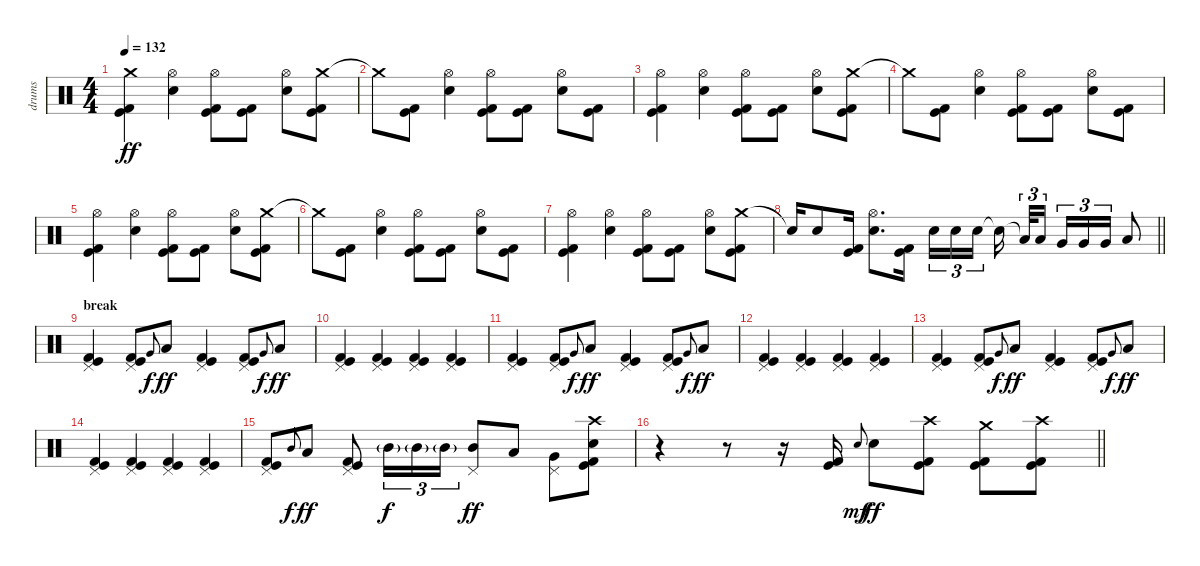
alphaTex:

\track ("drums" "drums") {instrument percussion}
\staff {score}
\articulation defaults
\ts (4 4)
\tempo 132
\clef neutral
\ks c
("Crash medium (hit)" "Kick (hit)" "Kick (hit) 2").4{dy ff} ("Electric Snare (hit)" "Hi-Hat (open)").4 ("Hi-Hat (open)" "Kick (hit)" "Kick (hit) 2").8 ("Kick (hit)" "Kick (hit) 2").8 ("Electric Snare (hit)" "Hi-Hat (open)").8 ("Crash medium (hit)" "Kick (hit)" "Kick (hit) 2").8 |
"Crash medium (hit)"{t}.8 ("Kick (hit)" "Kick (hit) 2").8 ("Electric Snare (hit)" "Hi-Hat (open)").4 ("Hi-Hat (open)" "Kick (hit)" "Kick (hit) 2").8 ("Kick (hit)" "Kick (hit) 2").8 ("Electric Snare (hit)" "Hi-Hat (open)").8 ("Kick (hit)" "Kick (hit) 2").8 |
("Hi-Hat (open)" "Kick (hit)" "Kick (hit) 2").4 ("Electric Snare (hit)" "Hi-Hat (open)").4 ("Hi-Hat (open)" "Kick (hit)" "Kick (hit) 2").8 ("Kick (hit)" "Kick (hit) 2").8 ("Electric Snare (hit)" "Hi-Hat (open)").8 ("Crash medium (hit)" "Kick (hit)" "Kick (hit) 2").8 |
"Crash medium (hit)"{t}.8 ("Kick (hit)" "Kick (hit) 2").8 ("Electric Snare (hit)" "Hi-Hat (open)").4 ("Hi-Hat (open)" "Kick (hit)" "Kick (hit) 2").8 ("Kick (hit)" "Kick (hit) 2").8 ("Electric Snare (hit)" "Hi-Hat (open)").8 ("Kick (hit)" "Kick (hit) 2").8 |
("Hi-Hat (open)" "Kick (hit)" "Kick (hit) 2").4 ("Electric Snare (hit)" "Hi-Hat (open)").4 ("Hi-Hat (open)" "Kick (hit)" "Kick (hit) 2").8 ("Kick (hit)" "Kick (hit) 2").8 ("Electric Snare (hit)" "Hi-Hat (open)").8 ("Crash medium (hit)" "Kick (hit)" "Kick (hit) 2").8 |
"Crash medium (hit)"{t}.8 ("Kick (hit)" "Kick (hit) 2").8 ("Electric Snare (hit)" "Hi-Hat (open)").4 ("Hi-Hat (open)" "Kick (hit)" "Kick (hit) 2").8 ("Kick (hit)" "Kick (hit) 2").8 ("Electric Snare (hit)" "Hi-Hat (open)").8 ("Kick (hit)" "Kick (hit) 2").8 |
("Hi-Hat (open)" "Kick (hit)" "Kick (hit) 2").4 ("Electric Snare (hit)" "Hi-Hat (open)").4 ("Hi-Hat (open)" "Kick (hit)" "Kick (hit) 2").8 ("Kick (hit)" "Kick (hit) 2").8 ("Electric Snare (hit)" "Hi-Hat (open)").8 ("Crash medium (hit)" "Kick (hit)" "Kick (hit) 2").8 |
\barLineRight lightlight "Snare (hit)"{t}.16 "Electric Snare (hit)".8
("Kick (hit)" "Kick (hit) 2").16 ("Electric Snare (hit)" "Hi-Hat (open)").8{d} ("Kick (hit)" "Kick (hit) 2").16 "Electric Snare (hit)".16{tu (3 2)} "Electric Snare (hit)".16{tu (3 2)} "Electric Snare (hit)".16{tu (3 2) beam splitsecondary} "Snare (hit)"{t}.16{beam splitsecondary} "Low Tom (hit)"{t}.32{tu (3 2)} "Low Tom (hit)".16{tu (3 2)} "Very Low Tom (hit)".16{tu (3 2)} "Very Low Tom (hit)".16{tu (3 2)} "Very Low Tom (hit)".16{tu (3 2)} "Low Floor Tom (hit)".8 |
\section ("" "break")
("Pedal Hi-Hat (hit)" "Kick (hit)" "Kick (hit) 2").4 ("Pedal Hi-Hat (hit)" "Kick (hit)" "Kick (hit) 2").8 "Very Low Tom (hit)".8{gr onbeat dy f} "Low Floor Tom (hit)".8{dy ff} ("Pedal Hi-Hat (hit)" "Kick (hit)" "Kick (hit) 2").4 ("Pedal Hi-Hat (hit)" "Kick (hit)" "Kick (hit) 2").8 "Very Low Tom (hit)".8{gr onbeat dy f} "Low Floor Tom (hit)".8{dy ff} |
("Pedal Hi-Hat (hit)" "Kick (hit)" "Kick (hit) 2").4 ("Pedal Hi-Hat (hit)" "Kick (hit)" "Kick (hit) 2").4 ("Pedal Hi-Hat (hit)" "Kick (hit)" "Kick (hit) 2").4 ("Pedal Hi-Hat (hit)" "Kick (hit)" "Kick (hit) 2").4 |
("Pedal Hi-Hat (hit)" "Kick (hit)" "Kick (hit) 2").4 ("Pedal Hi-Hat (hit)" "Kick (hit)" "Kick (hit) 2").8 "Very Low Tom (hit)".8{gr onbeat dy f} "Low Floor Tom (hit)".8{dy ff} ("Pedal Hi-Hat (hit)" "Kick (hit)" "Kick (hit) 2").4 ("Pedal Hi-Hat (hit)" "Kick (hit)" "Kick (hit) 2").8 "Very Low Tom (hit)".8{gr onbeat dy f} "Low Floor Tom (hit)".8{dy ff} |
("Pedal Hi-Hat (hit)" "Kick (hit)" "Kick (hit) 2").4 ("Pedal Hi-Hat (hit)" "Kick (hit)" "Kick (hit) 2").4 ("Pedal Hi-Hat (hit)" "Kick (hit)" "Kick (hit) 2").4 ("Pedal Hi-Hat (hit)" "Kick (hit)" "Kick (hit) 2").4 |
("Pedal Hi-Hat (hit)" "Kick (hit)" "Kick (hit) 2").4 ("Pedal Hi-Hat (hit)" "Kick (hit)" "Kick (hit) 2").8 "Very Low Tom (hit)".8{gr onbeat dy f} "Low Floor Tom (hit)".8{dy ff} ("Pedal Hi-Hat (hit)" "Kick (hit)" "Kick (hit) 2").4 ("Pedal Hi-Hat (hit)" "Kick (hit)" "Kick (hit) 2").8 "Very Low Tom (hit)".8{gr onbeat dy f} "Low Floor Tom (hit)".8{dy ff} |
("Pedal Hi-Hat (hit)" "Kick (hit)" "Kick (hit) 2").4 ("Pedal Hi-Hat (hit)" "Kick (hit)" "Kick (hit) 2").4 ("Pedal Hi-Hat (hit)" "Kick (hit)" "Kick (hit) 2").4 ("Pedal Hi-Hat (hit)" "Kick (hit)" "Kick (hit) 2").4 |
("Pedal Hi-Hat (hit)" "Kick (hit)" "Kick (hit) 2").8 "Mid Tom (hit)".8{gr onbeat dy f} "Low Tom (hit)".8{dy ff} ("Pedal Hi-Hat (hit)" "Kick (hit)" "Kick (hit) 2").8 "Mid Tom (hit)"{g}.16{tu (3 2) dy f} "Mid Tom (hit)"{g}.16{tu (3 2)} "Mid Tom (hit)"{g}.16{tu (3 2)} ("Mid Tom (hit)" "Pedal Hi-Hat (hit)").8{dy ff} "Low Tom (hit)".8 ("Very Low Tom (hit)" "Pedal Hi-Hat (hit)").8 ("Crash high (hit)" "Electric Snare (hit)" "Kick (hit)" "Kick (hit) 2").8 |
\barLineRight lightlight
r.4 r.8 r.16 ("Kick (hit)" "Kick (hit) 2").16 "Electric Snare (hit)".8{gr onbeat dy mf} "Electric Snare (hit)".8{dy ff} ("Crash high (hit)" "Kick (hit)" "Kick (hit) 2").8 ("Crash medium (hit)" "Kick (hit)" "Kick (hit) 2").8 ("Crash high (hit)" "Kick (hit)" "Kick (hit) 2").8
